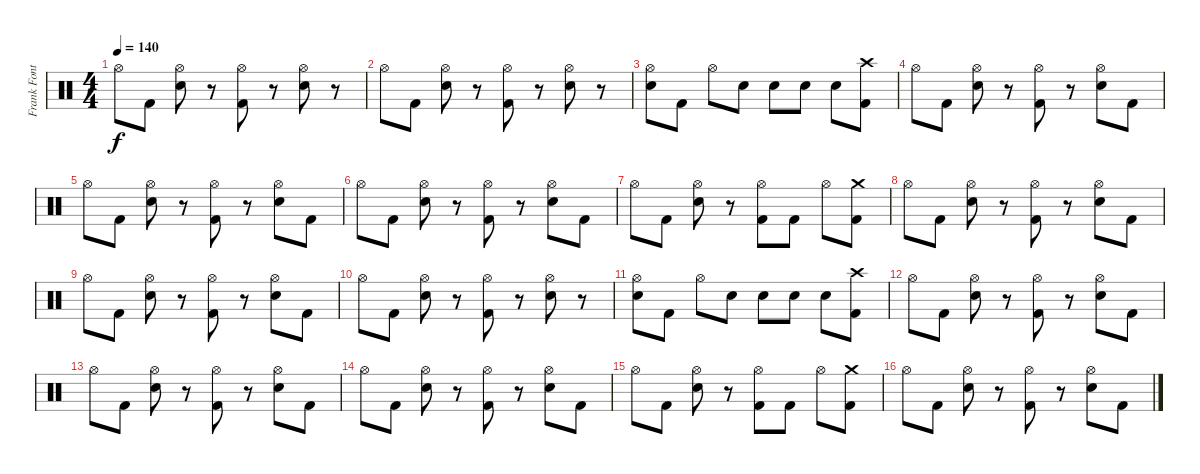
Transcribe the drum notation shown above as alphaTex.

\track ("Frank Fontsere" "Frank Font") {instrument percussion}
\staff {score}
\articulation defaults
\ts (4 4)
\tempo 140
\clef neutral
\ks c "Hi-Hat (open)".8{dy f} "Kick (hit) 2".8
("Hi-Hat (open)" "Electric Snare (hit)").8 r.8 ("Hi-Hat (open)" "Kick (hit) 2").8 r.8 ("Hi-Hat (open)" "Electric Snare (hit)").8 r.8 |
"Hi-Hat (open)".8 "Kick (hit) 2".8 ("Hi-Hat (open)" "Electric Snare (hit)").8 r.8 ("Hi-Hat (open)" "Kick (hit) 2").8 r.8 ("Hi-Hat (open)" "Electric Snare (hit)").8 r.8 |
("Hi-Hat (open)" "Electric Snare (hit)").8 "Kick (hit) 2".8 "Hi-Hat (open)".8 "Electric Snare (hit)".8 "Electric Snare (hit)".8 "Electric Snare (hit)".8 "Electric Snare (hit)".8 ("Crash high (hit)" "Kick (hit) 2").8 |
"Hi-Hat (open)".8 "Kick (hit) 2".8 ("Hi-Hat (open)" "Electric Snare (hit)").8 r.8 ("Hi-Hat (open)" "Kick (hit) 2").8 r.8 ("Hi-Hat (open)" "Electric Snare (hit)").8 "Kick (hit) 2".8 |
"Hi-Hat (open)".8 "Kick (hit) 2".8 ("Hi-Hat (open)" "Electric Snare (hit)").8 r.8 ("Hi-Hat (open)" "Kick (hit) 2").8 r.8 ("Hi-Hat (open)" "Electric Snare (hit)").8 "Kick (hit) 2".8 |
"Hi-Hat (open)".8 "Kick (hit) 2".8 ("Hi-Hat (open)" "Electric Snare (hit)").8 r.8 ("Hi-Hat (open)" "Kick (hit) 2").8 r.8 ("Hi-Hat (open)" "Electric Snare (hit)").8 "Kick (hit) 2".8 |
"Hi-Hat (open)".8 "Kick (hit) 2".8 ("Hi-Hat (open)" "Electric Snare (hit)").8 r.8 ("Hi-Hat (open)" "Kick (hit) 2").8 "Kick (hit) 2".8 "Hi-Hat (open)".8 ("Crash medium (hit)" "Kick (hit) 2").8 |
"Hi-Hat (open)".8 "Kick (hit) 2".8 ("Hi-Hat (open)" "Electric Snare (hit)").8 r.8 ("Hi-Hat (open)" "Kick (hit) 2").8 r.8 ("Hi-Hat (open)" "Electric Snare (hit)").8 "Kick (hit) 2".8 |
"Hi-Hat (open)".8 "Kick (hit) 2".8 ("Hi-Hat (open)" "Electric Snare (hit)").8 r.8 ("Hi-Hat (open)" "Kick (hit) 2").8 r.8 ("Hi-Hat (open)" "Electric Snare (hit)").8 "Kick (hit) 2".8 |
"Hi-Hat (open)".8 "Kick (hit) 2".8 ("Hi-Hat (open)" "Electric Snare (hit)").8 r.8 ("Hi-Hat (open)" "Kick (hit) 2").8 r.8 ("Hi-Hat (open)" "Electric Snare (hit)").8 r.8 |
("Hi-Hat (open)" "Electric Snare (hit)").8 "Kick (hit) 2".8 "Hi-Hat (open)".8 "Electric Snare (hit)".8 "Electric Snare (hit)".8 "Electric Snare (hit)".8 "Electric Snare (hit)".8 ("Crash high (hit)" "Kick (hit) 2").8 |
"Hi-Hat (open)".8 "Kick (hit) 2".8 ("Hi-Hat (open)" "Electric Snare (hit)").8 r.8 ("Hi-Hat (open)" "Kick (hit) 2").8 r.8 ("Hi-Hat (open)" "Electric Snare (hit)").8 "Kick (hit) 2".8 |
"Hi-Hat (open)".8 "Kick (hit) 2".8 ("Hi-Hat (open)" "Electric Snare (hit)").8 r.8 ("Hi-Hat (open)" "Kick (hit) 2").8 r.8 ("Hi-Hat (open)" "Electric Snare (hit)").8 "Kick (hit) 2".8 |
"Hi-Hat (open)".8 "Kick (hit) 2".8 ("Hi-Hat (open)" "Electric Snare (hit)").8 r.8 ("Hi-Hat (open)" "Kick (hit) 2").8 r.8 ("Hi-Hat (open)" "Electric Snare (hit)").8 "Kick (hit) 2".8 |
"Hi-Hat (open)".8 "Kick (hit) 2".8 ("Hi-Hat (open)" "Electric Snare (hit)").8 r.8 ("Hi-Hat (open)" "Kick (hit) 2").8 "Kick (hit) 2".8 "Hi-Hat (open)".8 ("Crash medium (hit)" "Kick (hit) 2").8 |
"Hi-Hat (open)".8 "Kick (hit) 2".8 ("Hi-Hat (open)" "Electric Snare (hit)").8 r.8 ("Hi-Hat (open)" "Kick (hit) 2").8 r.8 ("Hi-Hat (open)" "Electric Snare (hit)").8 "Kick (hit) 2".8
